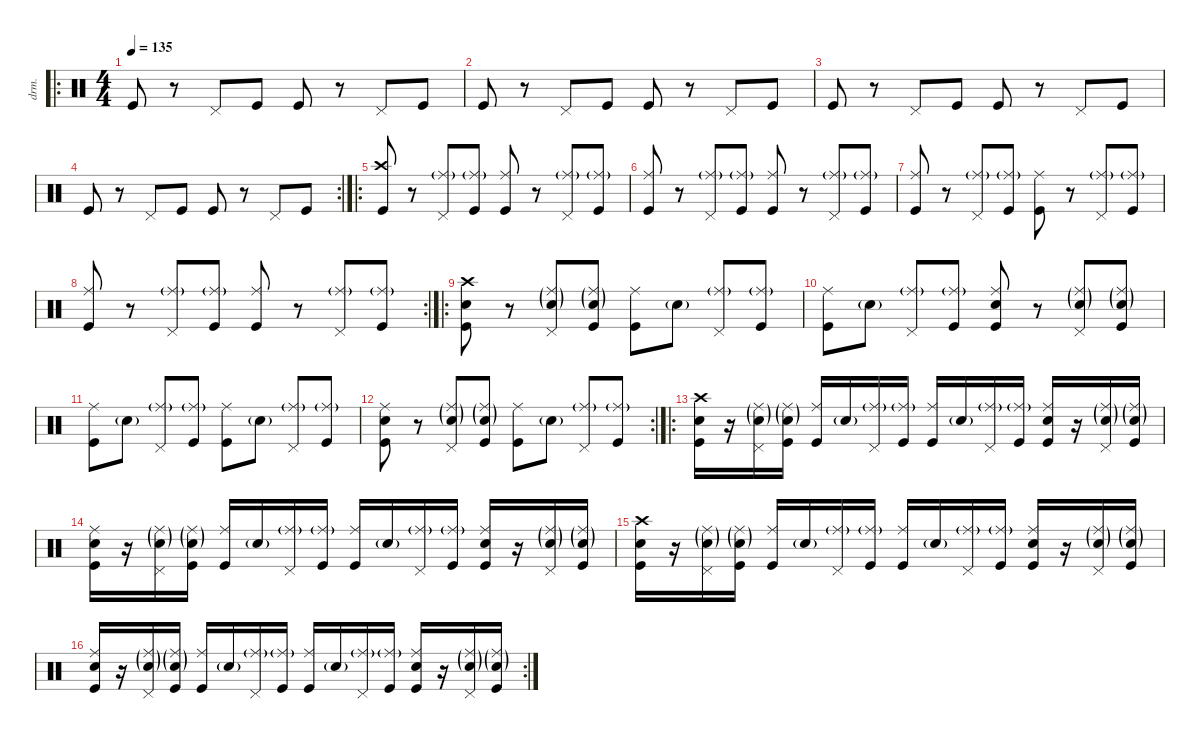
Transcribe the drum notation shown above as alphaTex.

\defaultSystemsLayout 4
\hideDynamics
\bracketExtendMode nobrackets
\track ("Drumkit" "drm.") {instrument percussion}
\staff {score}
\articulation defaults
\ro
\ts (4 4)
\tempo 135
\clef neutral
\ks c "Kick (hit)".8{dy mf beam Up}
r.8{beam Down} "Pedal Hi-Hat (hit)".8{beam Up} "Kick (hit)".8{beam Up} "Kick (hit)".8{beam Up} r.8{beam Down} "Pedal Hi-Hat (hit)".8{beam Up} "Kick (hit)".8{beam Up} |
"Kick (hit)".8{beam Up} r.8{beam Down} "Pedal Hi-Hat (hit)".8{beam Up} "Kick (hit)".8{beam Up} "Kick (hit)".8{beam Up} r.8{beam Down} "Pedal Hi-Hat (hit)".8{beam Up} "Kick (hit)".8{beam Up} |
"Kick (hit)".8{beam Up} r.8{beam Down} "Pedal Hi-Hat (hit)".8{beam Up} "Kick (hit)".8{beam Up} "Kick (hit)".8{beam Up} r.8{beam Down} "Pedal Hi-Hat (hit)".8{beam Up} "Kick (hit)".8{beam Up} |
\rc 2 "Kick (hit)".8{beam Up}
r.8{beam Down} "Pedal Hi-Hat (hit)".8{beam Up} "Kick (hit)".8{beam Up} "Kick (hit)".8{beam Up} r.8{beam Down} "Pedal Hi-Hat (hit)".8{beam Up} "Kick (hit)".8{beam Up} |
\ro
("Kick (hit)" "Crash high (hit)").8{beam Up} r.8{beam Down} ("Pedal Hi-Hat (hit)" "Ride (middle)"{g}).8{beam Up} ("Kick (hit)" "Ride (middle)"{g}).8{beam Up} ("Kick (hit)" "Ride (middle)").8{beam Up} r.8{beam Down} ("Pedal Hi-Hat (hit)" "Ride (middle)"{g}).8{beam Up} ("Kick (hit)" "Ride (middle)"{g}).8{beam Up} |
("Kick (hit)" "Ride (middle)").8{beam Up} r.8{beam Down} ("Pedal Hi-Hat (hit)" "Ride (middle)"{g}).8{beam Up} ("Kick (hit)" "Ride (middle)"{g}).8{beam Up} ("Kick (hit)" "Ride (middle)").8{beam Up} r.8{beam Down} ("Pedal Hi-Hat (hit)" "Ride (middle)"{g}).8{beam Up} ("Kick (hit)" "Ride (middle)"{g}).8{beam Up} |
("Kick (hit)" "Ride (middle)").8{beam Up} r.8{beam Down} ("Pedal Hi-Hat (hit)" "Ride (middle)"{g}).8{beam Up} ("Kick (hit)" "Ride (middle)"{g}).8{beam Up} ("Kick (hit)" "Ride (middle)").8{beam Down} r.8{beam Down} ("Pedal Hi-Hat (hit)" "Ride (middle)"{g}).8{beam Up} ("Kick (hit)" "Ride (middle)"{g}).8{beam Up} |
\rc 2
("Kick (hit)" "Ride (middle)").8{beam Up} r.8{beam Down} ("Pedal Hi-Hat (hit)" "Ride (middle)"{g}).8{beam Up} ("Kick (hit)" "Ride (middle)"{g}).8{beam Up} ("Kick (hit)" "Ride (middle)").8{beam Up} r.8{beam Down} ("Pedal Hi-Hat (hit)" "Ride (middle)"{g}).8{beam Up} ("Kick (hit)" "Ride (middle)"{g}).8{beam Up} |
\ro
("Kick (hit)" "Crash high (hit)" "Snare (hit) 2").8{beam Down} r.8{beam Down} ("Pedal Hi-Hat (hit)" "Ride (middle)"{g} "Snare (hit) 2"{g}).8{beam Up} ("Kick (hit)" "Ride (middle)"{g} "Snare (hit) 2"{g}).8{beam Up} ("Kick (hit)" "Ride (middle)").8{beam Down} "Snare (hit) 2"{g}.8{beam Down} ("Pedal Hi-Hat (hit)" "Ride (middle)"{g}).8{beam Up} ("Kick (hit)" "Ride (middle)"{g}).8{beam Up} |
("Kick (hit)" "Ride (middle)").8{beam Down} "Snare (hit) 2"{g}.8{beam Down} ("Pedal Hi-Hat (hit)" "Ride (middle)"{g}).8{beam Up} ("Kick (hit)" "Ride (middle)"{g}).8{beam Up} ("Kick (hit)" "Ride (middle)" "Snare (hit) 2").8{beam Up} r.8{beam Down} ("Pedal Hi-Hat (hit)" "Ride (middle)"{g} "Snare (hit) 2"{g}).8{beam Up} ("Kick (hit)" "Ride (middle)"{g} "Snare (hit) 2"{g}).8{beam Up} |
("Kick (hit)" "Ride (middle)").8{beam Down} "Snare (hit) 2"{g}.8{beam Down} ("Pedal Hi-Hat (hit)" "Ride (middle)"{g}).8{beam Up} ("Kick (hit)" "Ride (middle)"{g}).8{beam Up} ("Kick (hit)" "Ride (middle)").8{beam Down} "Snare (hit) 2"{g}.8{beam Down} ("Pedal Hi-Hat (hit)" "Ride (middle)"{g}).8{beam Up} ("Kick (hit)" "Ride (middle)"{g}).8{beam Up} |
\rc 2
("Kick (hit)" "Ride (middle)" "Snare (hit) 2").8{beam Down} r.8{beam Down} ("Pedal Hi-Hat (hit)" "Ride (middle)"{g} "Snare (hit) 2"{g}).8{beam Up} ("Kick (hit)" "Ride (middle)"{g} "Snare (hit) 2"{g}).8{beam Up} ("Kick (hit)" "Ride (middle)").8{beam Down} "Snare (hit) 2"{g}.8{beam Down} ("Pedal Hi-Hat (hit)" "Ride (middle)"{g}).8{beam Up} ("Kick (hit)" "Ride (middle)"{g}).8{beam Up} |
\ro
("Kick (hit)" "Crash high (hit)" "Snare (hit) 2").16{beam Down} r.16{beam Down} ("Pedal Hi-Hat (hit)" "Ride (middle)"{g} "Snare (hit) 2"{g}).16{beam Down} ("Kick (hit)" "Ride (middle)"{g} "Snare (hit) 2"{g}).16{beam Down} ("Kick (hit)" "Ride (middle)").16{beam Up} "Snare (hit) 2"{g}.16{beam Up} ("Pedal Hi-Hat (hit)" "Ride (middle)"{g}).16{beam Up} ("Kick (hit)" "Ride (middle)"{g}).16{beam Up} ("Kick (hit)" "Ride (middle)").16{beam Up} "Snare (hit) 2"{g}.16{beam Up} ("Pedal Hi-Hat (hit)" "Ride (middle)"{g}).16{beam Up} ("Kick (hit)" "Ride (middle)"{g}).16{beam Up} ("Kick (hit)" "Ride (middle)" "Snare (hit) 2").16{beam Up} r.16{beam Up} ("Pedal Hi-Hat (hit)" "Ride (middle)"{g} "Snare (hit) 2"{g}).16{beam Up} ("Kick (hit)" "Ride (middle)"{g} "Snare (hit) 2"{g}).16{beam Up} |
("Kick (hit)" "Snare (hit) 2" "Ride (middle)").16{beam Down} r.16{beam Down} ("Pedal Hi-Hat (hit)" "Ride (middle)"{g} "Snare (hit) 2"{g}).16{beam Down} ("Kick (hit)" "Ride (middle)"{g} "Snare (hit) 2"{g}).16{beam Down} ("Kick (hit)" "Ride (middle)").16{beam Up} "Snare (hit) 2"{g}.16{beam Up} ("Pedal Hi-Hat (hit)" "Ride (middle)"{g}).16{beam Up} ("Kick (hit)" "Ride (middle)"{g}).16{beam Up} ("Kick (hit)" "Ride (middle)").16{beam Up} "Snare (hit) 2"{g}.16{beam Up} ("Pedal Hi-Hat (hit)" "Ride (middle)"{g}).16{beam Up} ("Kick (hit)" "Ride (middle)"{g}).16{beam Up} ("Kick (hit)" "Ride (middle)" "Snare (hit) 2").16{beam Up} r.16{beam Up} ("Pedal Hi-Hat (hit)" "Ride (middle)"{g} "Snare (hit) 2"{g}).16{beam Up} ("Kick (hit)" "Ride (middle)"{g} "Snare (hit) 2"{g}).16{beam Up} |
("Kick (hit)" "Crash high (hit)" "Snare (hit) 2").16{beam Down} r.16{beam Down} ("Pedal Hi-Hat (hit)" "Ride (middle)"{g} "Snare (hit) 2"{g}).16{beam Down} ("Kick (hit)" "Ride (middle)"{g} "Snare (hit) 2"{g}).16{beam Down} ("Kick (hit)" "Ride (middle)").16{beam Up} "Snare (hit) 2"{g}.16{beam Up} ("Pedal Hi-Hat (hit)" "Ride (middle)"{g}).16{beam Up} ("Kick (hit)" "Ride (middle)"{g}).16{beam Up} ("Kick (hit)" "Ride (middle)").16{beam Up} "Snare (hit) 2"{g}.16{beam Up} ("Pedal Hi-Hat (hit)" "Ride (middle)"{g}).16{beam Up} ("Kick (hit)" "Ride (middle)"{g}).16{beam Up} ("Kick (hit)" "Ride (middle)" "Snare (hit) 2").16{beam Up} r.16{beam Up} ("Pedal Hi-Hat (hit)" "Ride (middle)"{g} "Snare (hit) 2"{g}).16{beam Up} ("Kick (hit)" "Ride (middle)"{g} "Snare (hit) 2"{g}).16{beam Up} |
\rc 2
("Kick (hit)" "Snare (hit) 2" "Ride (middle)").16{beam Up} r.16{beam Up} ("Pedal Hi-Hat (hit)" "Ride (middle)"{g} "Snare (hit) 2"{g}).16{beam Up} ("Kick (hit)" "Ride (middle)"{g} "Snare (hit) 2"{g}).16{beam Up} ("Kick (hit)" "Ride (middle)").16{beam Up} "Snare (hit) 2"{g}.16{beam Up} ("Pedal Hi-Hat (hit)" "Ride (middle)"{g}).16{beam Up} ("Kick (hit)" "Ride (middle)"{g}).16{beam Up} ("Kick (hit)" "Ride (middle)").16{beam Up} "Snare (hit) 2"{g}.16{beam Up} ("Pedal Hi-Hat (hit)" "Ride (middle)"{g}).16{beam Up} ("Kick (hit)" "Ride (middle)"{g}).16{beam Up} ("Kick (hit)" "Ride (middle)" "Snare (hit) 2").16{beam Up} r.16{beam Up} ("Pedal Hi-Hat (hit)" "Ride (middle)"{g} "Snare (hit) 2"{g}).16{beam Up} ("Kick (hit)" "Ride (middle)"{g} "Snare (hit) 2"{g}).16{beam Up}
